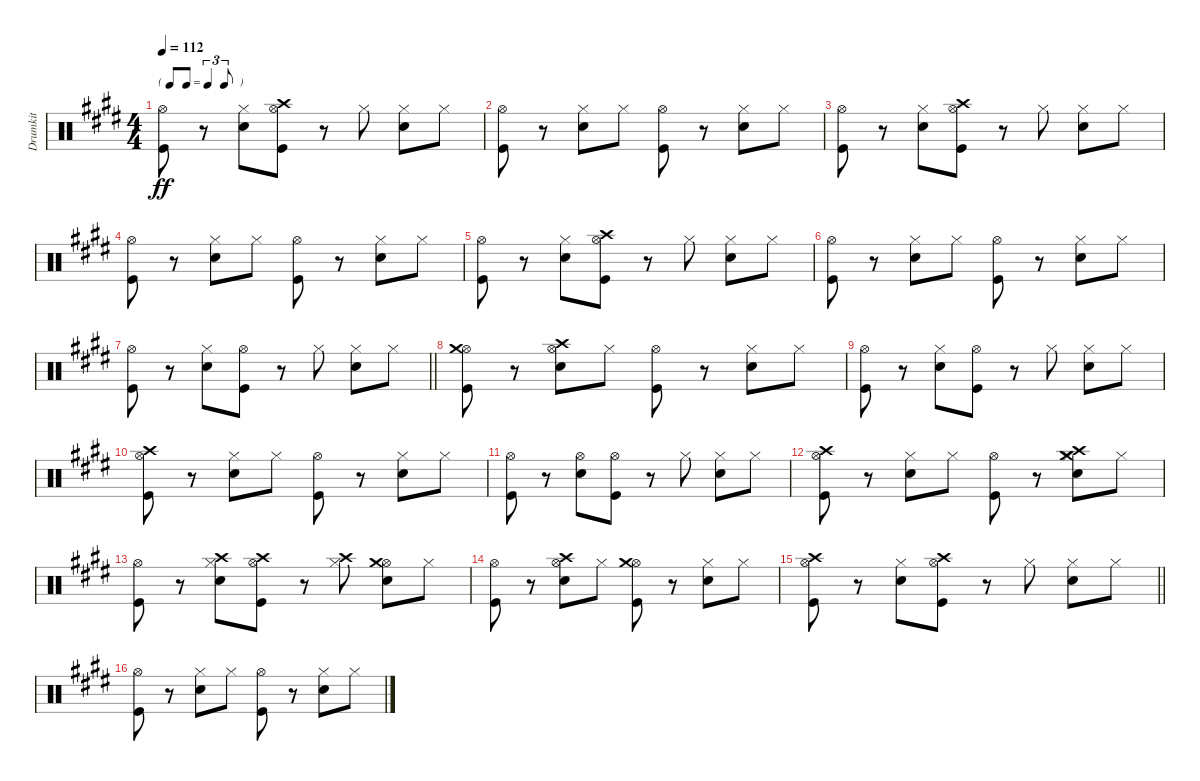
\track ("Drumkit" "Drumkit") {instrument percussion}
\staff {score}
\articulation defaults
\ts (4 4)
\tf triplet8th
\tempo 112
\clef neutral
\ks e
("Hi-Hat (open)" "Kick (hit)").8{dy ff} r.8 ("Snare (hit) 2" "Hi-Hat (closed)").8 ("Hi-Hat (open)" "Kick (hit)" "Crash high (hit)").8 r.8 "Hi-Hat (closed)".8 ("Snare (hit) 2" "Hi-Hat (closed)").8 "Hi-Hat (closed)".8 |
("Hi-Hat (open)" "Kick (hit)").8 r.8 ("Snare (hit) 2" "Hi-Hat (closed)").8 "Hi-Hat (closed)".8 ("Kick (hit)" "Hi-Hat (open)").8 r.8 ("Snare (hit) 2" "Hi-Hat (closed)").8 "Hi-Hat (closed)".8 |
("Kick (hit)" "Hi-Hat (open)").8 r.8 ("Snare (hit) 2" "Hi-Hat (closed)").8 ("Hi-Hat (open)" "Kick (hit)" "Crash high (hit)").8 r.8 "Hi-Hat (closed)".8 ("Snare (hit) 2" "Hi-Hat (closed)").8 "Hi-Hat (closed)".8 |
("Hi-Hat (open)" "Kick (hit)").8 r.8 ("Snare (hit) 2" "Hi-Hat (closed)").8 "Hi-Hat (closed)".8 ("Hi-Hat (open)" "Kick (hit)").8 r.8 ("Snare (hit) 2" "Hi-Hat (closed)").8 "Hi-Hat (closed)".8 |
("Hi-Hat (open)" "Kick (hit)").8 r.8 ("Snare (hit) 2" "Hi-Hat (closed)").8 ("Hi-Hat (open)" "Kick (hit)" "Crash high (hit)").8 r.8 "Hi-Hat (closed)".8 ("Snare (hit) 2" "Hi-Hat (closed)").8 "Hi-Hat (closed)".8 |
("Hi-Hat (open)" "Kick (hit)").8 r.8 ("Snare (hit) 2" "Hi-Hat (closed)").8 "Hi-Hat (closed)".8 ("Kick (hit)" "Hi-Hat (open)").8 r.8 ("Snare (hit) 2" "Hi-Hat (closed)").8 "Hi-Hat (closed)".8 |
\barLineRight lightlight
("Hi-Hat (open)" "Kick (hit)").8 r.8 ("Snare (hit) 2" "Hi-Hat (closed)").8 ("Hi-Hat (open)" "Kick (hit)").8 r.8 "Hi-Hat (closed)".8 ("Snare (hit) 2" "Hi-Hat (closed)").8 "Hi-Hat (closed)".8 |
\section ("" "")
("Hi-Hat (open)" "Kick (hit)" "Crash medium (hit)").8 r.8 ("Snare (hit) 2" "Hi-Hat (open)" "Crash high (hit)").8 "Hi-Hat (closed)".8 ("Hi-Hat (open)" "Kick (hit)").8 r.8 ("Snare (hit) 2" "Hi-Hat (closed)").8 "Hi-Hat (closed)".8 |
("Hi-Hat (open)" "Kick (hit)").8 r.8 ("Snare (hit) 2" "Hi-Hat (closed)").8 ("Hi-Hat (open)" "Kick (hit)").8 r.8 "Hi-Hat (closed)".8 ("Snare (hit) 2" "Hi-Hat (closed)").8 "Hi-Hat (closed)".8 |
("Hi-Hat (open)" "Kick (hit)" "Crash high (hit)").8 r.8 ("Snare (hit) 2" "Hi-Hat (closed)").8 "Hi-Hat (closed)".8 ("Kick (hit)" "Hi-Hat (open)").8 r.8 ("Snare (hit) 2" "Hi-Hat (closed)").8 "Hi-Hat (closed)".8 |
("Hi-Hat (open)" "Kick (hit)").8 r.8 ("Snare (hit) 2" "Hi-Hat (open)").8 ("Hi-Hat (open)" "Kick (hit)").8 r.8 "Hi-Hat (closed)".8 ("Snare (hit) 2" "Hi-Hat (closed)").8 "Hi-Hat (closed)".8 |
("Hi-Hat (open)" "Kick (hit)" "Crash high (hit)").8 r.8 ("Snare (hit) 2" "Hi-Hat (closed)").8 "Hi-Hat (closed)".8 ("Hi-Hat (open)" "Kick (hit)").8 r.8 ("Snare (hit) 2" "Hi-Hat (closed)" "Crash medium (hit)" "Crash high (hit)").8 "Hi-Hat (closed)".8 |
("Hi-Hat (open)" "Kick (hit)").8 r.8 ("Snare (hit) 2" "Hi-Hat (closed)" "Crash high (hit)").8 ("Hi-Hat (open)" "Kick (hit)" "Crash high (hit)").8 r.8 ("Hi-Hat (closed)" "Crash high (hit)").8 ("Snare (hit) 2" "Hi-Hat (open)" "Crash medium (hit)").8 "Hi-Hat (closed)".8 |
("Hi-Hat (open)" "Kick (hit)").8 r.8 ("Snare (hit) 2" "Hi-Hat (open)" "Crash high (hit)").8 "Hi-Hat (closed)".8 ("Kick (hit)" "Hi-Hat (open)" "Crash medium (hit)").8 r.8 ("Snare (hit) 2" "Hi-Hat (closed)").8 "Hi-Hat (closed)".8 |
\barLineRight lightlight
("Hi-Hat (open)" "Kick (hit)" "Crash high (hit)").8 r.8 ("Snare (hit) 2" "Hi-Hat (closed)").8 ("Hi-Hat (open)" "Kick (hit)" "Crash high (hit)").8 r.8 "Hi-Hat (closed)".8 ("Snare (hit) 2" "Hi-Hat (closed)").8 "Hi-Hat (closed)".8 |
\section ("" "")
("Kick (hit)" "Hi-Hat (open)").8 r.8 ("Snare (hit) 2" "Hi-Hat (closed)").8 "Hi-Hat (closed)".8 ("Hi-Hat (open)" "Kick (hit)").8 r.8 ("Snare (hit) 2" "Hi-Hat (closed)").8 "Hi-Hat (closed)".8
